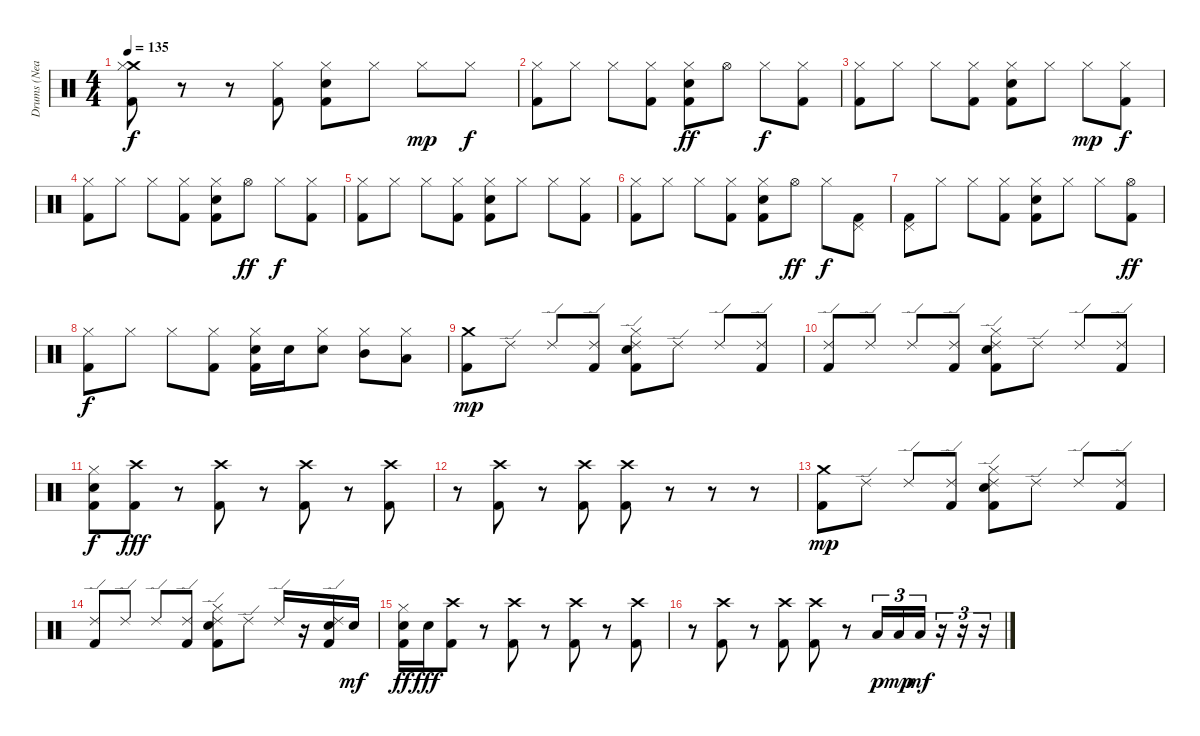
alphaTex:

\track ("Drums (Neal Peart)" "Drums (Nea") {instrument percussion}
\staff {score}
\articulation defaults
\ts (4 4)
\tempo 135
\clef neutral
\ks c
("Crash medium (hit)" "Hi-Hat (closed)" "Kick (hit) 2").8{dy f} r.8 r.8 ("Hi-Hat (closed)" "Kick (hit) 2").8 ("Hi-Hat (closed)" "Electric Snare (hit)" "Kick (hit) 2").8 "Hi-Hat (closed)".8 "Hi-Hat (closed)".8{dy mp} "Hi-Hat (closed)".8{dy f} |
("Hi-Hat (closed)" "Kick (hit) 2").8 "Hi-Hat (closed)".8 "Hi-Hat (closed)".8 ("Hi-Hat (closed)" "Kick (hit) 2").8 ("Hi-Hat (closed)" "Electric Snare (hit)" "Kick (hit) 2").8{dy ff} "Hi-Hat (open)".8 "Hi-Hat (closed)".8{dy f} ("Hi-Hat (closed)" "Kick (hit) 2").8 |
("Hi-Hat (closed)" "Kick (hit) 2").8 "Hi-Hat (closed)".8 "Hi-Hat (closed)".8 ("Hi-Hat (closed)" "Kick (hit) 2").8 ("Hi-Hat (closed)" "Electric Snare (hit)" "Kick (hit) 2").8 "Hi-Hat (closed)".8 "Hi-Hat (closed)".8{dy mp} ("Hi-Hat (closed)" "Kick (hit) 2").8{dy f} |
("Hi-Hat (closed)" "Kick (hit) 2").8 "Hi-Hat (closed)".8 "Hi-Hat (closed)".8 ("Hi-Hat (closed)" "Kick (hit) 2").8 ("Hi-Hat (closed)" "Electric Snare (hit)" "Kick (hit) 2").8 "Hi-Hat (open)".8{dy ff} "Hi-Hat (closed)".8{dy f} ("Hi-Hat (closed)" "Kick (hit) 2").8 |
("Hi-Hat (closed)" "Kick (hit) 2").8 "Hi-Hat (closed)".8 "Hi-Hat (closed)".8 ("Hi-Hat (closed)" "Kick (hit) 2").8 ("Hi-Hat (closed)" "Electric Snare (hit)" "Kick (hit) 2").8 "Hi-Hat (closed)".8 "Hi-Hat (closed)".8 ("Hi-Hat (closed)" "Kick (hit) 2").8 |
("Hi-Hat (closed)" "Kick (hit) 2").8 "Hi-Hat (closed)".8 "Hi-Hat (closed)".8 ("Hi-Hat (closed)" "Kick (hit) 2").8 ("Hi-Hat (closed)" "Electric Snare (hit)" "Kick (hit) 2").8 "Hi-Hat (open)".8{dy ff} "Hi-Hat (closed)".8{dy f} ("Pedal Hi-Hat (hit)" "Kick (hit) 2").8 |
("Pedal Hi-Hat (hit)" "Kick (hit) 2").8 "Hi-Hat (closed)".8 "Hi-Hat (closed)".8 ("Hi-Hat (closed)" "Kick (hit) 2").8 ("Hi-Hat (closed)" "Electric Snare (hit)" "Kick (hit) 2").8 "Hi-Hat (closed)".8 "Hi-Hat (closed)".8 ("Hi-Hat (open)" "Kick (hit) 2").8{dy ff} |
("Hi-Hat (closed)" "Kick (hit) 2").8{dy f volume 16} "Hi-Hat (closed)".8 "Hi-Hat (closed)".8 ("Hi-Hat (closed)" "Kick (hit) 2").8 ("Hi-Hat (closed)" "Electric Snare (hit)" "Kick (hit) 2").16 "Electric Snare (hit)".16 ("Hi-Hat (closed)" "Electric Snare (hit)").8 ("Hi-Hat (closed)" "Mid Tom (hit)").8 ("Hi-Hat (closed)" "Low Tom (hit)").8 |
("Crash medium (hit)" "Kick (hit) 2").8{dy mp} "Ride (edge) 2".8 "Ride (edge) 2".8 ("Ride (edge) 2" "Kick (hit) 2").8 ("Ride (edge) 2" "Hi-Hat (closed)" "Electric Snare (hit)" "Kick (hit) 2").8 "Ride (edge) 2".8 "Ride (edge) 2".8 ("Ride (edge) 2" "Kick (hit) 2").8 |
("Ride (edge) 2" "Kick (hit) 2").8 "Ride (edge) 2".8 "Ride (edge) 2".8 ("Ride (edge) 2" "Kick (hit) 2").8 ("Ride (edge) 2" "Hi-Hat (closed)" "Electric Snare (hit)" "Kick (hit) 2").8 "Ride (edge) 2".8 "Ride (edge) 2".8 ("Ride (edge) 2" "Kick (hit) 2").8 |
("Hi-Hat (closed)" "Electric Snare (hit)" "Kick (hit) 2").8{dy f} ("Crash high (hit)" "Kick (hit) 2").8{dy fff} r.8{volume 0} ("Crash high (hit)" "Kick (hit) 2").8{volume 16} r.8{volume 0} ("Crash high (hit)" "Kick (hit) 2").8{volume 16} r.8{volume 0} ("Crash high (hit)" "Kick (hit) 2").8{volume 16} |
r.8{volume 0} ("Crash high (hit)" "Kick (hit) 2").8{volume 16} r.8{volume 0} ("Crash high (hit)" "Kick (hit) 2").8{volume 16} ("Crash high (hit)" "Kick (hit) 2").8 r.8{volume 0} r.8 r.8 |
("Crash medium (hit)" "Kick (hit) 2").8{dy mp volume 16} "Ride (edge) 2".8 "Ride (edge) 2".8 ("Ride (edge) 2" "Kick (hit) 2").8 ("Ride (edge) 2" "Hi-Hat (closed)" "Electric Snare (hit)" "Kick (hit) 2").8 "Ride (edge) 2".8 "Ride (edge) 2".8 ("Ride (edge) 2" "Kick (hit) 2").8 |
("Ride (edge) 2" "Kick (hit) 2").8 "Ride (edge) 2".8 "Ride (edge) 2".8 ("Ride (edge) 2" "Kick (hit) 2").8 ("Ride (edge) 2" "Hi-Hat (closed)" "Electric Snare (hit)" "Kick (hit) 2").8 "Ride (edge) 2".8 "Ride (edge) 2".16 r.16 ("Ride (edge) 2" "Electric Snare (hit)" "Kick (hit) 2").16 "Electric Snare (hit)".16{dy mf} |
("Hi-Hat (closed)" "Electric Snare (hit)" "Kick (hit) 2").16{dy ff} "Electric Snare (hit)".16{dy fff} ("Crash high (hit)" "Kick (hit) 2").8 r.8{volume 0} ("Crash high (hit)" "Kick (hit) 2").8{volume 16} r.8{volume 0} ("Crash high (hit)" "Kick (hit) 2").8{volume 16} r.8{volume 0} ("Crash high (hit)" "Kick (hit) 2").8{volume 16} |
r.8{volume 0} ("Crash high (hit)" "Kick (hit) 2").8{volume 16} r.8{volume 0} ("Crash high (hit)" "Kick (hit) 2").8{volume 16} ("Crash high (hit)" "Kick (hit) 2").8 r.8{volume 0} "Low Tom (hit)".16{tu (3 2) dy p volume 16} "Low Tom (hit)".16{tu (3 2) dy mp} "Low Tom (hit)".16{tu (3 2) dy mf} r.16{tu (3 2)} r.16{tu (3 2)} r.16{tu (3 2)}
